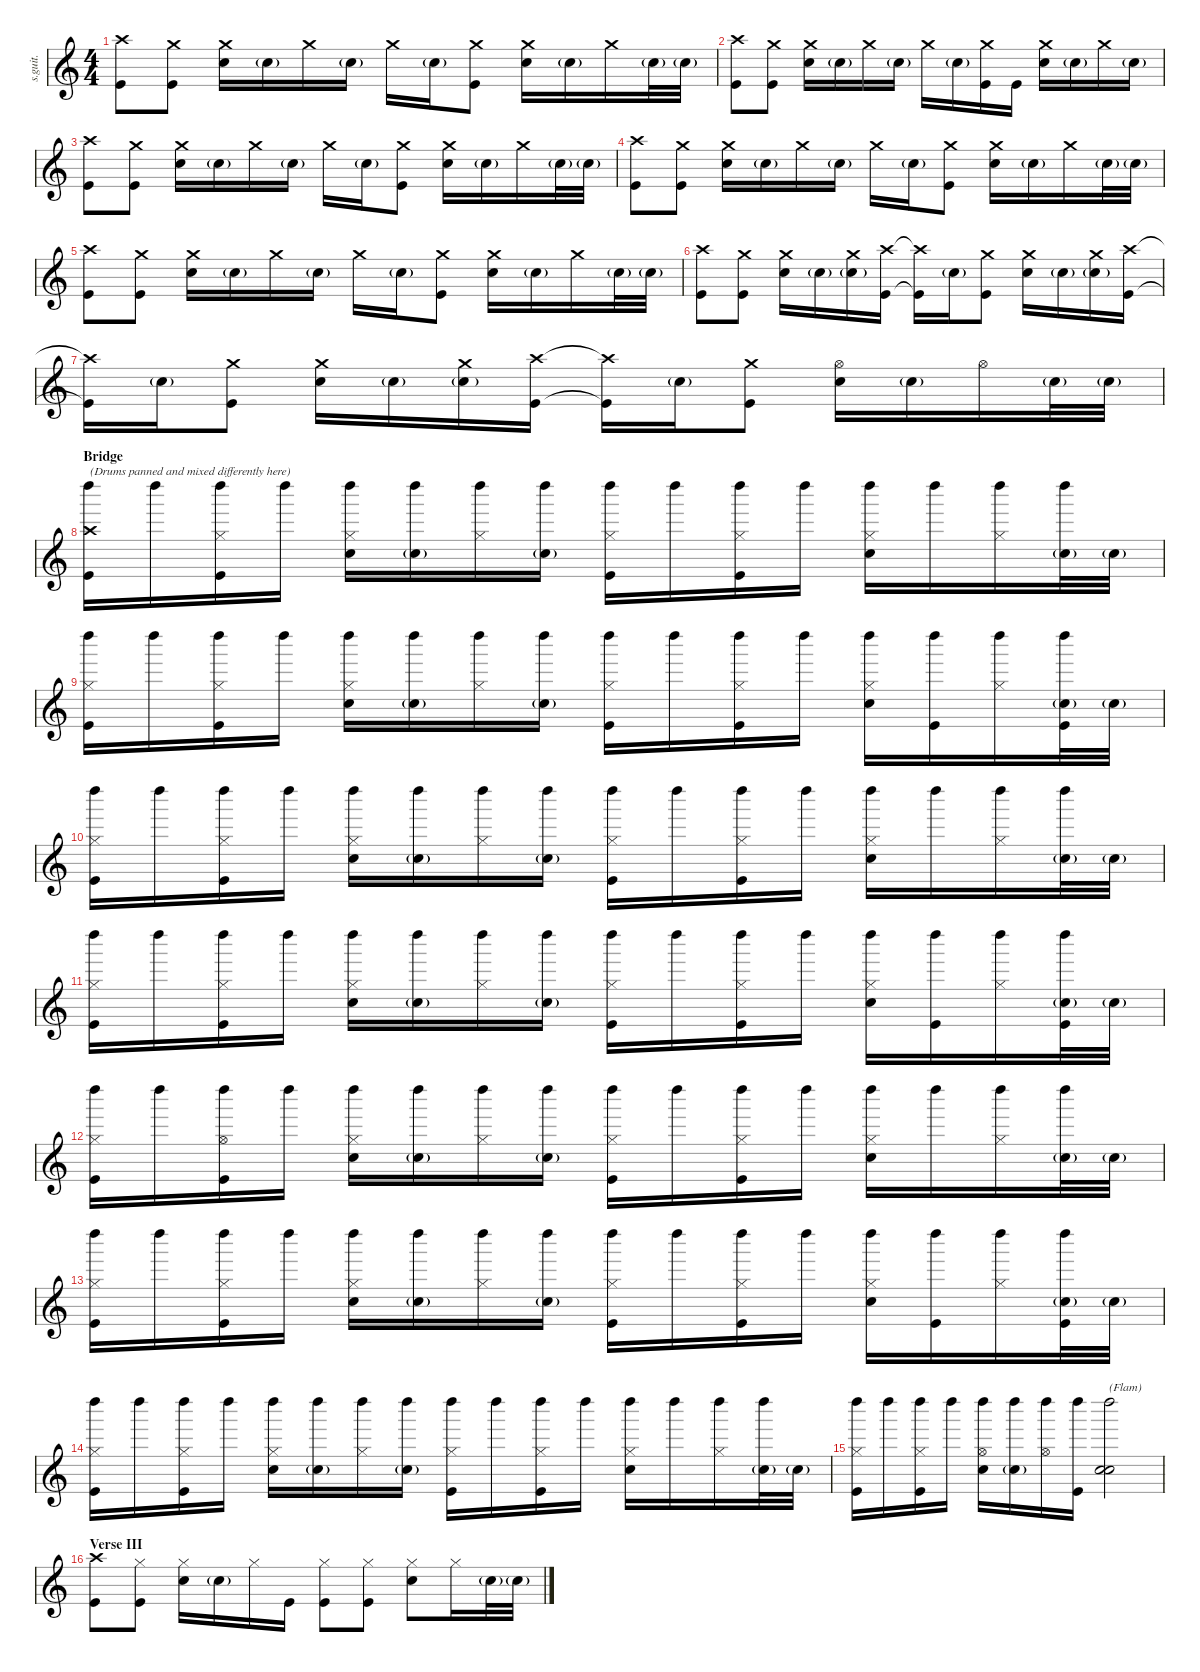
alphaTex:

\defaultSystemsLayout 4
\hideDynamics
\bracketExtendMode nobrackets
\track ("Chad Smith" "s.guit.") {instrument percussion}
\staff {score}
\articulation defaults
\ts (4 4)
\tempo (96 hide)
\clef g2
\ks c
("Crash high (hit)" "Kick (hit)").8{dy f} ("Crash medium (hit)" "Kick (hit)").8 ("Crash medium (hit)" "Snare (hit) 2").16 "Snare (hit) 2"{g}.16{dy pp} "Crash medium (hit)".16{dy f} "Snare (hit) 2"{g}.16{dy pp} "Crash medium (hit)".16{dy f} "Snare (hit) 2"{g}.16{dy pp} ("Crash medium (hit)" "Kick (hit)").8{dy f} ("Crash medium (hit)" "Snare (hit) 2").16 "Snare (hit) 2"{g}.16{dy pp} "Crash medium (hit)".16{dy f} "Snare (hit) 2"{g}.32{dy pp} "Snare (hit) 2"{g}.32 |
("Crash high (hit)" "Kick (hit)").8{dy f} ("Crash medium (hit)" "Kick (hit)").8 ("Crash medium (hit)" "Snare (hit) 2").16 "Snare (hit) 2"{g}.16{dy pp} "Crash medium (hit)".16{dy f} "Snare (hit) 2"{g}.16{dy pp} "Crash medium (hit)".16{dy f} "Snare (hit) 2"{g}.16{dy pp} ("Crash medium (hit)" "Kick (hit)").16{dy f} "Kick (hit)".16 ("Crash medium (hit)" "Snare (hit) 2").16 "Snare (hit) 2"{g}.16{dy pp} "Crash medium (hit)".16{dy f} "Snare (hit) 2"{g}.16{dy pp} |
("Crash high (hit)" "Kick (hit)").8{dy f} ("Crash medium (hit)" "Kick (hit)").8 ("Crash medium (hit)" "Snare (hit) 2").16 "Snare (hit) 2"{g}.16{dy pp} "Crash medium (hit)".16{dy f} "Snare (hit) 2"{g}.16{dy pp} "Crash medium (hit)".16{dy f} "Snare (hit) 2"{g}.16{dy pp} ("Crash medium (hit)" "Kick (hit)").8{dy f} ("Crash medium (hit)" "Snare (hit) 2").16 "Snare (hit) 2"{g}.16{dy pp} "Crash medium (hit)".16{dy f} "Snare (hit) 2"{g}.32{dy pp} "Snare (hit) 2"{g}.32 |
("Crash high (hit)" "Kick (hit)").8{dy f} ("Crash medium (hit)" "Kick (hit)").8 ("Crash medium (hit)" "Snare (hit) 2").16 "Snare (hit) 2"{g}.16{dy pp} "Crash medium (hit)".16{dy f} "Snare (hit) 2"{g}.16{dy pp} "Crash medium (hit)".16{dy f} "Snare (hit) 2"{g}.16{dy pp} ("Crash medium (hit)" "Kick (hit)").8{dy f} ("Crash medium (hit)" "Snare (hit) 2").16 "Snare (hit) 2"{g}.16{dy pp} "Crash medium (hit)".16{dy f} "Snare (hit) 2"{g}.32{dy pp} "Snare (hit) 2"{g}.32 |
("Crash high (hit)" "Kick (hit)").8{dy f} ("Crash medium (hit)" "Kick (hit)").8 ("Crash medium (hit)" "Snare (hit) 2").16 "Snare (hit) 2"{g}.16{dy pp} "Crash medium (hit)".16{dy f} "Snare (hit) 2"{g}.16{dy pp} "Crash medium (hit)".16{dy f} "Snare (hit) 2"{g}.16{dy pp} ("Crash medium (hit)" "Kick (hit)").8{dy f} ("Crash medium (hit)" "Snare (hit) 2").16 "Snare (hit) 2"{g}.16{dy pp} "Crash medium (hit)".16{dy f} "Snare (hit) 2"{g}.32{dy pp} "Snare (hit) 2"{g}.32 |
("Crash high (hit)" "Kick (hit)").8{dy f} ("Crash medium (hit)" "Kick (hit)").8 ("Crash medium (hit)" "Snare (hit) 2").16 "Snare (hit) 2"{g}.16{dy pp} ("Crash medium (hit)" "Snare (hit) 2"{g}).16{dy f} ("Crash high (hit)" "Kick (hit)").16 ("Crash high (hit)"{t} "Kick (hit)"{t}).16 "Snare (hit) 2"{g}.16{dy pp} ("Crash medium (hit)" "Kick (hit)").8{dy f} ("Crash medium (hit)" "Snare (hit) 2").16 "Snare (hit) 2"{g}.16{dy pp} ("Crash medium (hit)" "Snare (hit) 2"{g}).16{dy f} ("Crash high (hit)" "Kick (hit)").16 |
("Crash high (hit)"{t} "Kick (hit)"{t}).16 "Snare (hit) 2"{g}.16{dy pp} ("Crash medium (hit)" "Kick (hit)").8{dy f} ("Crash medium (hit)" "Snare (hit) 2").16 "Snare (hit) 2"{g}.16{dy pp} ("Crash medium (hit)" "Snare (hit) 2"{g}).16{dy f} ("Crash high (hit)" "Kick (hit)").16 ("Crash high (hit)"{t} "Kick (hit)"{t}).16 "Snare (hit) 2"{g}.16{dy pp} ("Crash medium (hit)" "Kick (hit)").8{dy f} ("Hi-Hat (open)" "Snare (hit) 2").16 "Snare (hit) 2"{g}.16{dy pp} "Hi-Hat (open)".16{dy p} "Snare (hit) 2"{g}.32{dy pp} "Snare (hit) 2"{g}.32 |
\section ("" "Bridge")
("Crash high (hit)" "Kick (hit)" "Left Maraca (hit)").16{txt "(Drums panned and mixed differently here)" dy f} "Left Maraca (hit)".16{dy ppp} ("Hi-Hat (closed)" "Kick (hit)" "Left Maraca (hit)").16{dy p} "Left Maraca (hit)".16{dy ppp} ("Hi-Hat (closed)" "Snare (hit) 2" "Left Maraca (hit)").16{dy f} ("Snare (hit) 2"{g} "Left Maraca (hit)").16{dy ppp} ("Hi-Hat (closed)" "Left Maraca (hit)").16{dy p} ("Snare (hit) 2"{g} "Left Maraca (hit)").16{dy ppp} ("Hi-Hat (closed)" "Kick (hit)" "Left Maraca (hit)").16{dy f} "Left Maraca (hit)".16{dy ppp} ("Hi-Hat (closed)" "Kick (hit)" "Left Maraca (hit)").16{dy p} "Left Maraca (hit)".16{dy ppp} ("Hi-Hat (closed)" "Snare (hit) 2" "Left Maraca (hit)").16{dy f} "Left Maraca (hit)".16{dy ppp} ("Hi-Hat (closed)" "Left Maraca (hit)").16{dy p} ("Snare (hit) 2"{g} "Left Maraca (hit)").32{dy ppp} "Snare (hit) 2"{g}.32{dy pp} |
("Hi-Hat (closed)" "Kick (hit)" "Left Maraca (hit)").16{dy f} "Left Maraca (hit)".16{dy ppp} ("Hi-Hat (closed)" "Kick (hit)" "Left Maraca (hit)").16{dy p} "Left Maraca (hit)".16{dy ppp} ("Hi-Hat (closed)" "Snare (hit) 2" "Left Maraca (hit)").16{dy f} ("Snare (hit) 2"{g} "Left Maraca (hit)").16{dy ppp} ("Hi-Hat (closed)" "Left Maraca (hit)").16{dy p} ("Snare (hit) 2"{g} "Left Maraca (hit)").16{dy ppp} ("Hi-Hat (closed)" "Kick (hit)" "Left Maraca (hit)").16{dy f} "Left Maraca (hit)".16{dy ppp} ("Hi-Hat (closed)" "Kick (hit)" "Left Maraca (hit)").16{dy p} "Left Maraca (hit)".16{dy ppp} ("Hi-Hat (closed)" "Snare (hit) 2" "Left Maraca (hit)").16{dy f} ("Kick (hit)" "Left Maraca (hit)").16 ("Hi-Hat (closed)" "Left Maraca (hit)").16{dy p} ("Snare (hit) 2"{g} "Kick (hit)" "Left Maraca (hit)").32{dy f} "Snare (hit) 2"{g}.32{dy pp} |
("Hi-Hat (closed)" "Kick (hit)" "Left Maraca (hit)").16{dy f} "Left Maraca (hit)".16{dy ppp} ("Hi-Hat (closed)" "Kick (hit)" "Left Maraca (hit)").16{dy p} "Left Maraca (hit)".16{dy ppp} ("Hi-Hat (closed)" "Snare (hit) 2" "Left Maraca (hit)").16{dy f} ("Snare (hit) 2"{g} "Left Maraca (hit)").16{dy ppp} ("Hi-Hat (closed)" "Left Maraca (hit)").16{dy p} ("Snare (hit) 2"{g} "Left Maraca (hit)").16{dy ppp} ("Hi-Hat (closed)" "Kick (hit)" "Left Maraca (hit)").16{dy f} "Left Maraca (hit)".16{dy ppp} ("Hi-Hat (closed)" "Kick (hit)" "Left Maraca (hit)").16{dy p} "Left Maraca (hit)".16{dy ppp} ("Hi-Hat (closed)" "Snare (hit) 2" "Left Maraca (hit)").16{dy f} "Left Maraca (hit)".16{dy ppp} ("Hi-Hat (closed)" "Left Maraca (hit)").16{dy p} ("Snare (hit) 2"{g} "Left Maraca (hit)").32{dy ppp} "Snare (hit) 2"{g}.32{dy pp} |
("Hi-Hat (closed)" "Kick (hit)" "Left Maraca (hit)").16{dy f} "Left Maraca (hit)".16{dy ppp} ("Hi-Hat (closed)" "Kick (hit)" "Left Maraca (hit)").16{dy p} "Left Maraca (hit)".16{dy ppp} ("Hi-Hat (closed)" "Snare (hit) 2" "Left Maraca (hit)").16{dy f} ("Snare (hit) 2"{g} "Left Maraca (hit)").16{dy ppp} ("Hi-Hat (closed)" "Left Maraca (hit)").16{dy p} ("Snare (hit) 2"{g} "Left Maraca (hit)").16{dy ppp} ("Hi-Hat (closed)" "Kick (hit)" "Left Maraca (hit)").16{dy f} "Left Maraca (hit)".16{dy ppp} ("Hi-Hat (closed)" "Kick (hit)" "Left Maraca (hit)").16{dy p} "Left Maraca (hit)".16{dy ppp} ("Hi-Hat (closed)" "Snare (hit) 2" "Left Maraca (hit)").16{dy f} ("Kick (hit)" "Left Maraca (hit)").16 ("Hi-Hat (closed)" "Left Maraca (hit)").16{dy p} ("Snare (hit) 2"{g} "Kick (hit)" "Left Maraca (hit)").32{dy f} "Snare (hit) 2"{g}.32{dy pp} |
("Hi-Hat (closed)" "Kick (hit)" "Left Maraca (hit)").16{dy f} "Left Maraca (hit)".16{dy ppp} ("Hi-Hat (open)" "Kick (hit)" "Left Maraca (hit)").16{dy f} "Left Maraca (hit)".16{dy ppp} ("Hi-Hat (closed)" "Snare (hit) 2" "Left Maraca (hit)").16{dy f} ("Snare (hit) 2"{g} "Left Maraca (hit)").16{dy ppp} ("Hi-Hat (closed)" "Left Maraca (hit)").16{dy p} ("Snare (hit) 2"{g} "Left Maraca (hit)").16{dy ppp} ("Hi-Hat (closed)" "Kick (hit)" "Left Maraca (hit)").16{dy f} "Left Maraca (hit)".16{dy ppp} ("Hi-Hat (closed)" "Kick (hit)" "Left Maraca (hit)").16{dy p} "Left Maraca (hit)".16{dy ppp} ("Hi-Hat (closed)" "Snare (hit) 2" "Left Maraca (hit)").16{dy f} "Left Maraca (hit)".16{dy ppp} ("Hi-Hat (closed)" "Left Maraca (hit)").16{dy p} ("Snare (hit) 2"{g} "Left Maraca (hit)").32{dy ppp} "Snare (hit) 2"{g}.32{dy pp} |
("Hi-Hat (closed)" "Kick (hit)" "Left Maraca (hit)").16{dy f} "Left Maraca (hit)".16{dy ppp} ("Hi-Hat (closed)" "Kick (hit)" "Left Maraca (hit)").16{dy p} "Left Maraca (hit)".16{dy ppp} ("Hi-Hat (closed)" "Snare (hit) 2" "Left Maraca (hit)").16{dy f} ("Snare (hit) 2"{g} "Left Maraca (hit)").16{dy ppp} ("Hi-Hat (closed)" "Left Maraca (hit)").16{dy p} ("Snare (hit) 2"{g} "Left Maraca (hit)").16{dy ppp} ("Hi-Hat (closed)" "Kick (hit)" "Left Maraca (hit)").16{dy f} "Left Maraca (hit)".16{dy ppp} ("Hi-Hat (closed)" "Kick (hit)" "Left Maraca (hit)").16{dy p} "Left Maraca (hit)".16{dy ppp} ("Hi-Hat (closed)" "Snare (hit) 2" "Left Maraca (hit)").16{dy f} ("Kick (hit)" "Left Maraca (hit)").16 ("Hi-Hat (closed)" "Left Maraca (hit)").16{dy p} ("Snare (hit) 2"{g} "Kick (hit)" "Left Maraca (hit)").32{dy f} "Snare (hit) 2"{g}.32{dy pp} |
("Hi-Hat (closed)" "Kick (hit)" "Left Maraca (hit)").16{dy f} "Left Maraca (hit)".16{dy ppp} ("Hi-Hat (closed)" "Kick (hit)" "Left Maraca (hit)").16{dy p} "Left Maraca (hit)".16{dy ppp} ("Hi-Hat (closed)" "Snare (hit) 2" "Left Maraca (hit)").16{dy f} ("Snare (hit) 2"{g} "Left Maraca (hit)").16{dy ppp} ("Hi-Hat (closed)" "Left Maraca (hit)").16{dy p} ("Snare (hit) 2"{g} "Left Maraca (hit)").16{dy ppp} ("Hi-Hat (closed)" "Kick (hit)" "Left Maraca (hit)").16{dy f} "Left Maraca (hit)".16{dy ppp} ("Hi-Hat (closed)" "Kick (hit)" "Left Maraca (hit)").16{dy p} "Left Maraca (hit)".16{dy ppp} ("Hi-Hat (closed)" "Snare (hit) 2" "Left Maraca (hit)").16{dy f} "Left Maraca (hit)".16{dy ppp} ("Hi-Hat (closed)" "Left Maraca (hit)").16{dy p} ("Snare (hit) 2"{g} "Left Maraca (hit)").32{dy ppp} "Snare (hit) 2"{g}.32{dy pp} |
("Hi-Hat (closed)" "Kick (hit)" "Left Maraca (hit)").16{dy f} "Left Maraca (hit)".16{dy ppp} ("Hi-Hat (closed)" "Kick (hit)" "Left Maraca (hit)").16{dy p} "Left Maraca (hit)".16{dy ppp} ("Hi-Hat (open)" "Snare (hit) 2" "Left Maraca (hit)").16{dy mp} ("Snare (hit) 2"{g} "Left Maraca (hit)").16{dy ppp} ("Hi-Hat (open)" "Left Maraca (hit)").16{dy f} ("Kick (hit)" "Left Maraca (hit)").16 ("Snare (hit) 2" "Snare (hit) 2" "Left Maraca (hit)").2{txt "(Flam)"} |
\section ("" "Verse III")
("Crash high (hit)" "Kick (hit)").8 ("Hi-Hat (closed)" "Kick (hit)").8{dy p} ("Hi-Hat (closed)" "Snare (hit) 2").16{dy f} "Snare (hit) 2"{g}.16{dy pp} "Hi-Hat (closed)".16{dy p} "Kick (hit)".16{dy f} ("Hi-Hat (closed)" "Kick (hit)").8 ("Hi-Hat (closed)" "Kick (hit)").8{dy p} ("Hi-Hat (closed)" "Snare (hit) 2").8{dy f} "Hi-Hat (closed)".16{dy p} "Snare (hit) 2"{g}.32{dy pp} "Snare (hit) 2"{g}.32
